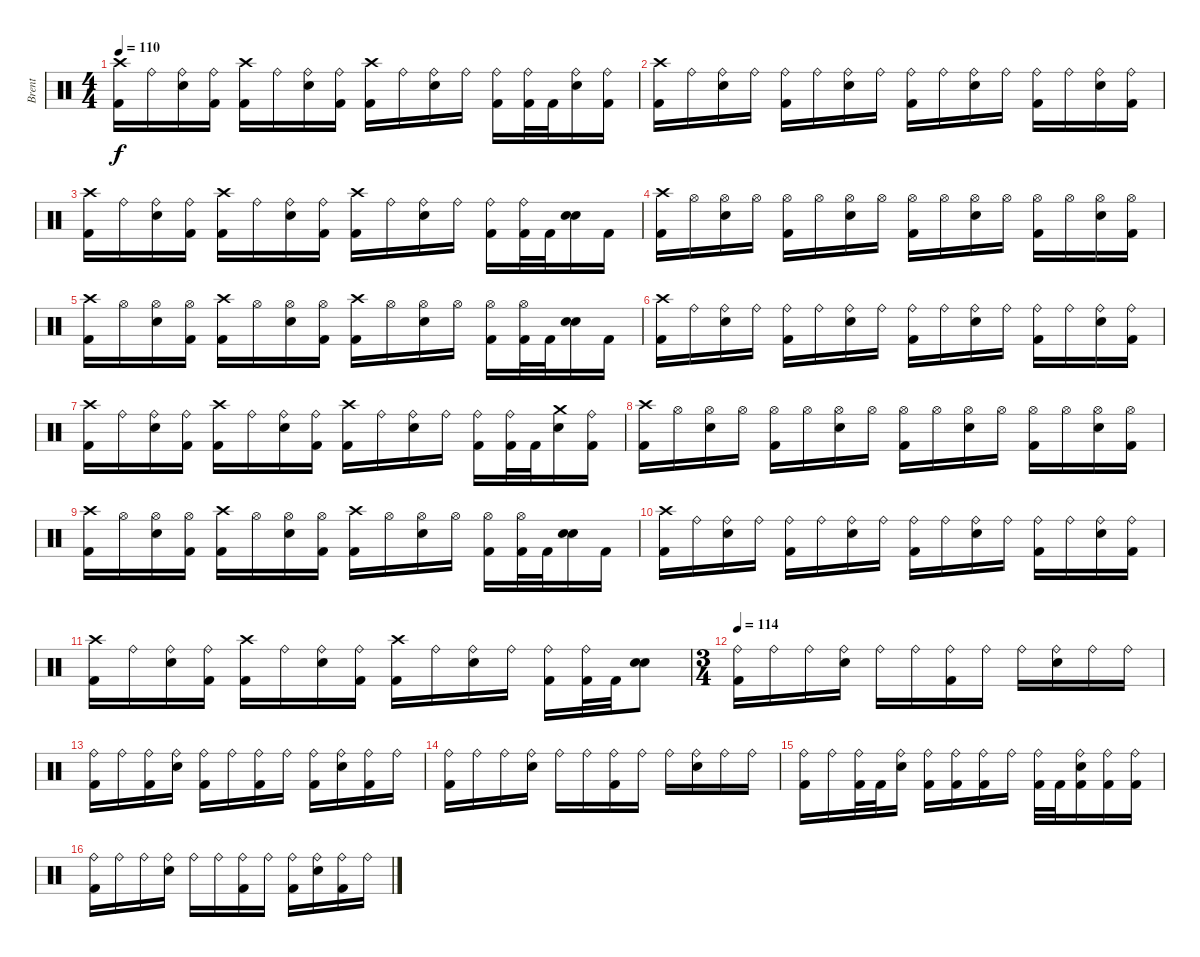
\track ("Brent" "Brent") {instrument percussion}
\staff {score}
\articulation defaults
\ts (4 4)
\tempo 110
\clef neutral
\ks c
("Crash high (hit)" "Kick (hit) 2").16{dy f} "Ride (bell)".16 ("Ride (bell)" "Snare (hit) 2").16 ("Ride (bell)" "Kick (hit) 2").16 ("Crash high (hit)" "Kick (hit) 2").16 "Ride (bell)".16 ("Ride (bell)" "Snare (hit) 2").16 ("Ride (bell)" "Kick (hit) 2").16 ("Crash high (hit)" "Kick (hit) 2").16 "Ride (bell)".16 ("Ride (bell)" "Snare (hit) 2").16 "Ride (bell)".16 ("Ride (bell)" "Kick (hit) 2").16 ("Ride (bell)" "Kick (hit) 2").32 "Kick (hit) 2".32 ("Ride (bell)" "Snare (hit) 2").16 ("Ride (bell)" "Kick (hit) 2").16 |
("Crash high (hit)" "Kick (hit) 2").16 "Ride (bell)".16 ("Ride (bell)" "Snare (hit) 2").16 "Ride (bell)".16 ("Ride (bell)" "Kick (hit) 2").16 "Ride (bell)".16 ("Ride (bell)" "Snare (hit) 2").16 "Ride (bell)".16 ("Ride (bell)" "Kick (hit) 2").16 "Ride (bell)".16 ("Ride (bell)" "Snare (hit) 2").16 "Ride (bell)".16 ("Ride (bell)" "Kick (hit) 2").16 "Ride (bell)".16 ("Ride (bell)" "Snare (hit) 2").16 ("Ride (bell)" "Kick (hit) 2").16 |
("Crash high (hit)" "Kick (hit) 2").16 "Ride (bell)".16 ("Ride (bell)" "Snare (hit) 2").16 ("Ride (bell)" "Kick (hit) 2").16 ("Crash high (hit)" "Kick (hit) 2").16 "Ride (bell)".16 ("Ride (bell)" "Snare (hit) 2").16 ("Ride (bell)" "Kick (hit) 2").16 ("Crash high (hit)" "Kick (hit) 2").16 "Ride (bell)".16 ("Ride (bell)" "Snare (hit) 2").16 "Ride (bell)".16 ("Ride (bell)" "Kick (hit) 2").16 ("Ride (bell)" "Kick (hit) 2").32 "Kick (hit) 2".32 ("Snare (hit) 2" "Snare (hit) 2").16 "Kick (hit) 2".16 |
("Crash high (hit)" "Kick (hit) 2").16 "Hi-Hat (open)".16 ("Hi-Hat (open)" "Snare (hit) 2").16 "Hi-Hat (open)".16 ("Hi-Hat (open)" "Kick (hit) 2").16 "Hi-Hat (open)".16 ("Hi-Hat (open)" "Snare (hit) 2").16 "Hi-Hat (open)".16 ("Hi-Hat (open)" "Kick (hit) 2").16 "Hi-Hat (open)".16 ("Hi-Hat (open)" "Snare (hit) 2").16 "Hi-Hat (open)".16 ("Hi-Hat (open)" "Kick (hit) 2").16 "Hi-Hat (open)".16 ("Hi-Hat (open)" "Snare (hit) 2").16 ("Hi-Hat (open)" "Kick (hit) 2").16 |
("Crash high (hit)" "Kick (hit) 2").16 "Hi-Hat (open)".16 ("Hi-Hat (open)" "Snare (hit) 2").16 ("Hi-Hat (open)" "Kick (hit) 2").16 ("Crash high (hit)" "Kick (hit) 2").16 "Hi-Hat (open)".16 ("Hi-Hat (open)" "Snare (hit) 2").16 ("Hi-Hat (open)" "Kick (hit) 2").16 ("Crash high (hit)" "Kick (hit) 2").16 "Hi-Hat (open)".16 ("Hi-Hat (open)" "Snare (hit) 2").16 "Hi-Hat (open)".16 ("Hi-Hat (open)" "Kick (hit) 2").16 ("Hi-Hat (open)" "Kick (hit) 2").32 "Kick (hit) 2".32 ("Snare (hit) 2" "Snare (hit) 2").16 "Kick (hit) 2".16 |
("Crash high (hit)" "Kick (hit) 2").16 "Ride (bell)".16 ("Ride (bell)" "Snare (hit) 2").16 "Ride (bell)".16 ("Ride (bell)" "Kick (hit) 2").16 "Ride (bell)".16 ("Ride (bell)" "Snare (hit) 2").16 "Ride (bell)".16 ("Ride (bell)" "Kick (hit) 2").16 "Ride (bell)".16 ("Ride (bell)" "Snare (hit) 2").16 "Ride (bell)".16 ("Ride (bell)" "Kick (hit) 2").16 "Ride (bell)".16 ("Ride (bell)" "Snare (hit) 2").16 ("Ride (bell)" "Kick (hit) 2").16 |
("Crash high (hit)" "Kick (hit) 2").16 "Ride (bell)".16 ("Ride (bell)" "Snare (hit) 2").16 ("Ride (bell)" "Kick (hit) 2").16 ("Crash high (hit)" "Kick (hit) 2").16 "Ride (bell)".16 ("Ride (bell)" "Snare (hit) 2").16 ("Ride (bell)" "Kick (hit) 2").16 ("Crash high (hit)" "Kick (hit) 2").16 "Ride (bell)".16 ("Ride (bell)" "Snare (hit) 2").16 "Ride (bell)".16 ("Ride (bell)" "Kick (hit) 2").16 ("Ride (bell)" "Kick (hit) 2").32 "Kick (hit) 2".32 ("Crash medium (hit)" "Snare (hit) 2").16 ("Ride (bell)" "Kick (hit) 2").16 |
("Crash high (hit)" "Kick (hit) 2").16 "Hi-Hat (open)".16 ("Hi-Hat (open)" "Snare (hit) 2").16 "Hi-Hat (open)".16 ("Hi-Hat (open)" "Kick (hit) 2").16 "Hi-Hat (open)".16 ("Hi-Hat (open)" "Snare (hit) 2").16 "Hi-Hat (open)".16 ("Hi-Hat (open)" "Kick (hit) 2").16 "Hi-Hat (open)".16 ("Hi-Hat (open)" "Snare (hit) 2").16 "Hi-Hat (open)".16 ("Hi-Hat (open)" "Kick (hit) 2").16 "Hi-Hat (open)".16 ("Hi-Hat (open)" "Snare (hit) 2").16 ("Hi-Hat (open)" "Kick (hit) 2").16 |
("Crash high (hit)" "Kick (hit) 2").16 "Hi-Hat (open)".16 ("Hi-Hat (open)" "Snare (hit) 2").16 ("Hi-Hat (open)" "Kick (hit) 2").16 ("Crash high (hit)" "Kick (hit) 2").16 "Hi-Hat (open)".16 ("Hi-Hat (open)" "Snare (hit) 2").16 ("Hi-Hat (open)" "Kick (hit) 2").16 ("Crash high (hit)" "Kick (hit) 2").16 "Hi-Hat (open)".16 ("Hi-Hat (open)" "Snare (hit) 2").16 "Hi-Hat (open)".16 ("Hi-Hat (open)" "Kick (hit) 2").16 ("Hi-Hat (open)" "Kick (hit) 2").32 "Kick (hit) 2".32 ("Snare (hit) 2" "Snare (hit) 2").16 "Kick (hit) 2".16 |
("Crash high (hit)" "Kick (hit) 2").16 "Ride (bell)".16 ("Ride (bell)" "Snare (hit) 2").16 "Ride (bell)".16 ("Ride (bell)" "Kick (hit) 2").16 "Ride (bell)".16 ("Ride (bell)" "Snare (hit) 2").16 "Ride (bell)".16 ("Ride (bell)" "Kick (hit) 2").16 "Ride (bell)".16 ("Ride (bell)" "Snare (hit) 2").16 "Ride (bell)".16 ("Ride (bell)" "Kick (hit) 2").16 "Ride (bell)".16 ("Ride (bell)" "Snare (hit) 2").16 ("Ride (bell)" "Kick (hit) 2").16 |
("Crash high (hit)" "Kick (hit) 2").16 "Ride (bell)".16 ("Ride (bell)" "Snare (hit) 2").16 ("Ride (bell)" "Kick (hit) 2").16 ("Crash high (hit)" "Kick (hit) 2").16 "Ride (bell)".16 ("Ride (bell)" "Snare (hit) 2").16 ("Ride (bell)" "Kick (hit) 2").16 ("Crash high (hit)" "Kick (hit) 2").16 "Ride (bell)".16 ("Ride (bell)" "Snare (hit) 2").16 "Ride (bell)".16 ("Ride (bell)" "Kick (hit) 2").16 ("Ride (bell)" "Kick (hit) 2").32 "Kick (hit) 2".32 ("Snare (hit) 2" "Snare (hit) 2").8 |
\ts (3 4)
\tempo 114
("Ride (bell)" "Kick (hit) 2").16 "Ride (bell)".16 "Ride (bell)".16 ("Ride (bell)" "Snare (hit) 2").16 "Ride (bell)".16 "Ride (bell)".16 ("Ride (bell)" "Kick (hit) 2").16 "Ride (bell)".16 "Ride (bell)".16 ("Ride (bell)" "Snare (hit) 2").16 "Ride (bell)".16 "Ride (bell)".16 |
("Ride (bell)" "Kick (hit) 2").16 "Ride (bell)".16 ("Ride (bell)" "Kick (hit) 2").16 ("Ride (bell)" "Snare (hit) 2").16 ("Ride (bell)" "Kick (hit) 2").16 "Ride (bell)".16 ("Ride (bell)" "Kick (hit) 2").16 "Ride (bell)".16 ("Ride (bell)" "Kick (hit) 2").16 ("Ride (bell)" "Snare (hit) 2").16 ("Ride (bell)" "Kick (hit) 2").16 "Ride (bell)".16 |
("Ride (bell)" "Kick (hit) 2").16 "Ride (bell)".16 "Ride (bell)".16 ("Ride (bell)" "Snare (hit) 2").16 "Ride (bell)".16 "Ride (bell)".16 ("Ride (bell)" "Kick (hit) 2").16 "Ride (bell)".16 "Ride (bell)".16 ("Ride (bell)" "Snare (hit) 2").16 "Ride (bell)".16 "Ride (bell)".16 |
("Ride (bell)" "Kick (hit) 2").16 "Ride (bell)".16 ("Ride (bell)" "Kick (hit) 2").32 "Kick (hit) 2".32 ("Ride (bell)" "Snare (hit) 2").16 ("Ride (bell)" "Kick (hit) 2").16 ("Ride (bell)" "Kick (hit) 2").16 ("Ride (bell)" "Kick (hit) 2").16 "Ride (bell)".16 ("Ride (bell)" "Kick (hit) 2").32 "Kick (hit) 2".32 ("Ride (bell)" "Snare (hit) 2" "Kick (hit) 2").16 ("Ride (bell)" "Kick (hit) 2").16 ("Ride (bell)" "Kick (hit) 2").16 |
("Ride (bell)" "Kick (hit) 2").16 "Ride (bell)".16 "Ride (bell)".16 ("Ride (bell)" "Snare (hit) 2").16 "Ride (bell)".16 "Ride (bell)".16 ("Ride (bell)" "Kick (hit) 2").16 "Ride (bell)".16 ("Ride (bell)" "Kick (hit) 2").16 ("Ride (bell)" "Snare (hit) 2").16 ("Ride (bell)" "Kick (hit) 2").16 "Ride (bell)".16
